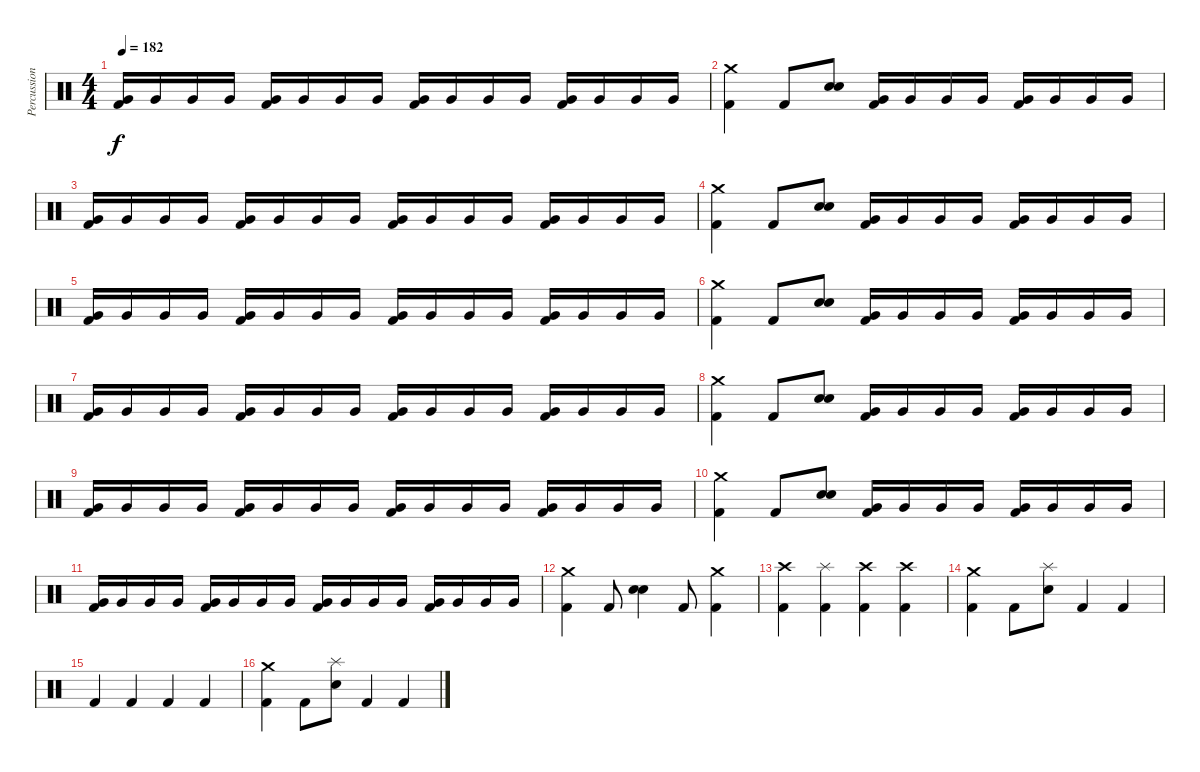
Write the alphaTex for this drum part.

\track ("Percussion" "Percussion") {instrument percussion}
\staff {score}
\articulation defaults
\ts (4 4)
\tempo 182
\clef neutral
\ks c
("Very Low Tom (hit)" "Kick (hit) 2").16{dy f} "Very Low Tom (hit)".16 "Very Low Tom (hit)".16 "Very Low Tom (hit)".16 ("Very Low Tom (hit)" "Kick (hit) 2").16 "Very Low Tom (hit)".16 "Very Low Tom (hit)".16 "Very Low Tom (hit)".16 ("Very Low Tom (hit)" "Kick (hit) 2").16 "Very Low Tom (hit)".16 "Very Low Tom (hit)".16 "Very Low Tom (hit)".16 ("Very Low Tom (hit)" "Kick (hit) 2").16 "Very Low Tom (hit)".16 "Very Low Tom (hit)".16 "Very Low Tom (hit)".16 |
("Crash medium (hit)" "Kick (hit) 2").4 "Kick (hit) 2".8 ("Electric Snare (hit)" "Electric Snare (hit)").8 ("Very Low Tom (hit)" "Kick (hit) 2").16 "Very Low Tom (hit)".16 "Very Low Tom (hit)".16 "Very Low Tom (hit)".16 ("Very Low Tom (hit)" "Kick (hit) 2").16 "Very Low Tom (hit)".16 "Very Low Tom (hit)".16 "Very Low Tom (hit)".16 |
("Very Low Tom (hit)" "Kick (hit) 2").16 "Very Low Tom (hit)".16 "Very Low Tom (hit)".16 "Very Low Tom (hit)".16 ("Very Low Tom (hit)" "Kick (hit) 2").16 "Very Low Tom (hit)".16 "Very Low Tom (hit)".16 "Very Low Tom (hit)".16 ("Very Low Tom (hit)" "Kick (hit) 2").16 "Very Low Tom (hit)".16 "Very Low Tom (hit)".16 "Very Low Tom (hit)".16 ("Very Low Tom (hit)" "Kick (hit) 2").16 "Very Low Tom (hit)".16 "Very Low Tom (hit)".16 "Very Low Tom (hit)".16 |
("Crash medium (hit)" "Kick (hit) 2").4 "Kick (hit) 2".8 ("Electric Snare (hit)" "Electric Snare (hit)").8 ("Very Low Tom (hit)" "Kick (hit) 2").16 "Very Low Tom (hit)".16 "Very Low Tom (hit)".16 "Very Low Tom (hit)".16 ("Very Low Tom (hit)" "Kick (hit) 2").16 "Very Low Tom (hit)".16 "Very Low Tom (hit)".16 "Very Low Tom (hit)".16 |
("Very Low Tom (hit)" "Kick (hit) 2").16 "Very Low Tom (hit)".16 "Very Low Tom (hit)".16 "Very Low Tom (hit)".16 ("Very Low Tom (hit)" "Kick (hit) 2").16 "Very Low Tom (hit)".16 "Very Low Tom (hit)".16 "Very Low Tom (hit)".16 ("Very Low Tom (hit)" "Kick (hit) 2").16 "Very Low Tom (hit)".16 "Very Low Tom (hit)".16 "Very Low Tom (hit)".16 ("Very Low Tom (hit)" "Kick (hit) 2").16 "Very Low Tom (hit)".16 "Very Low Tom (hit)".16 "Very Low Tom (hit)".16 |
("Crash medium (hit)" "Kick (hit) 2").4 "Kick (hit) 2".8 ("Electric Snare (hit)" "Electric Snare (hit)").8 ("Very Low Tom (hit)" "Kick (hit) 2").16 "Very Low Tom (hit)".16 "Very Low Tom (hit)".16 "Very Low Tom (hit)".16 ("Very Low Tom (hit)" "Kick (hit) 2").16 "Very Low Tom (hit)".16 "Very Low Tom (hit)".16 "Very Low Tom (hit)".16 |
("Very Low Tom (hit)" "Kick (hit) 2").16 "Very Low Tom (hit)".16 "Very Low Tom (hit)".16 "Very Low Tom (hit)".16 ("Very Low Tom (hit)" "Kick (hit) 2").16 "Very Low Tom (hit)".16 "Very Low Tom (hit)".16 "Very Low Tom (hit)".16 ("Very Low Tom (hit)" "Kick (hit) 2").16 "Very Low Tom (hit)".16 "Very Low Tom (hit)".16 "Very Low Tom (hit)".16 ("Very Low Tom (hit)" "Kick (hit) 2").16 "Very Low Tom (hit)".16 "Very Low Tom (hit)".16 "Very Low Tom (hit)".16 |
("Crash medium (hit)" "Kick (hit) 2").4 "Kick (hit) 2".8 ("Electric Snare (hit)" "Electric Snare (hit)").8 ("Very Low Tom (hit)" "Kick (hit) 2").16 "Very Low Tom (hit)".16 "Very Low Tom (hit)".16 "Very Low Tom (hit)".16 ("Very Low Tom (hit)" "Kick (hit) 2").16 "Very Low Tom (hit)".16 "Very Low Tom (hit)".16 "Very Low Tom (hit)".16 |
("Very Low Tom (hit)" "Kick (hit) 2").16 "Very Low Tom (hit)".16 "Very Low Tom (hit)".16 "Very Low Tom (hit)".16 ("Very Low Tom (hit)" "Kick (hit) 2").16 "Very Low Tom (hit)".16 "Very Low Tom (hit)".16 "Very Low Tom (hit)".16 ("Very Low Tom (hit)" "Kick (hit) 2").16 "Very Low Tom (hit)".16 "Very Low Tom (hit)".16 "Very Low Tom (hit)".16 ("Very Low Tom (hit)" "Kick (hit) 2").16 "Very Low Tom (hit)".16 "Very Low Tom (hit)".16 "Very Low Tom (hit)".16 |
("Crash medium (hit)" "Kick (hit) 2").4 "Kick (hit) 2".8 ("Electric Snare (hit)" "Electric Snare (hit)").8 ("Very Low Tom (hit)" "Kick (hit) 2").16 "Very Low Tom (hit)".16 "Very Low Tom (hit)".16 "Very Low Tom (hit)".16 ("Very Low Tom (hit)" "Kick (hit) 2").16 "Very Low Tom (hit)".16 "Very Low Tom (hit)".16 "Very Low Tom (hit)".16 |
("Very Low Tom (hit)" "Kick (hit) 2").16 "Very Low Tom (hit)".16 "Very Low Tom (hit)".16 "Very Low Tom (hit)".16 ("Very Low Tom (hit)" "Kick (hit) 2").16 "Very Low Tom (hit)".16 "Very Low Tom (hit)".16 "Very Low Tom (hit)".16 ("Very Low Tom (hit)" "Kick (hit) 2").16 "Very Low Tom (hit)".16 "Very Low Tom (hit)".16 "Very Low Tom (hit)".16 ("Very Low Tom (hit)" "Kick (hit) 2").16 "Very Low Tom (hit)".16 "Very Low Tom (hit)".16 "Very Low Tom (hit)".16 |
("Crash medium (hit)" "Kick (hit) 2").4 "Kick (hit) 2".8 ("Electric Snare (hit)" "Electric Snare (hit)").4 "Kick (hit) 2".8 ("Crash medium (hit)" "Kick (hit) 2").4 |
("Crash high (hit)" "Kick (hit) 2").4 ("Splash (hit)" "Kick (hit) 2").4 ("Crash high (hit)" "Kick (hit) 2").4 ("Crash high (hit)" "Kick (hit) 2").4 |
("Crash medium (hit)" "Kick (hit) 2").4 "Kick (hit) 2".8 ("Splash (hit)" "Electric Snare (hit)").8 "Kick (hit) 2".4 "Kick (hit) 2".4 |
"Kick (hit) 2".4 "Kick (hit) 2".4 "Kick (hit) 2".4 "Kick (hit) 2".4 |
("Crash medium (hit)" "Kick (hit) 2").4 "Kick (hit) 2".8 ("Splash (hit)" "Electric Snare (hit)").8 "Kick (hit) 2".4 "Kick (hit) 2".4
